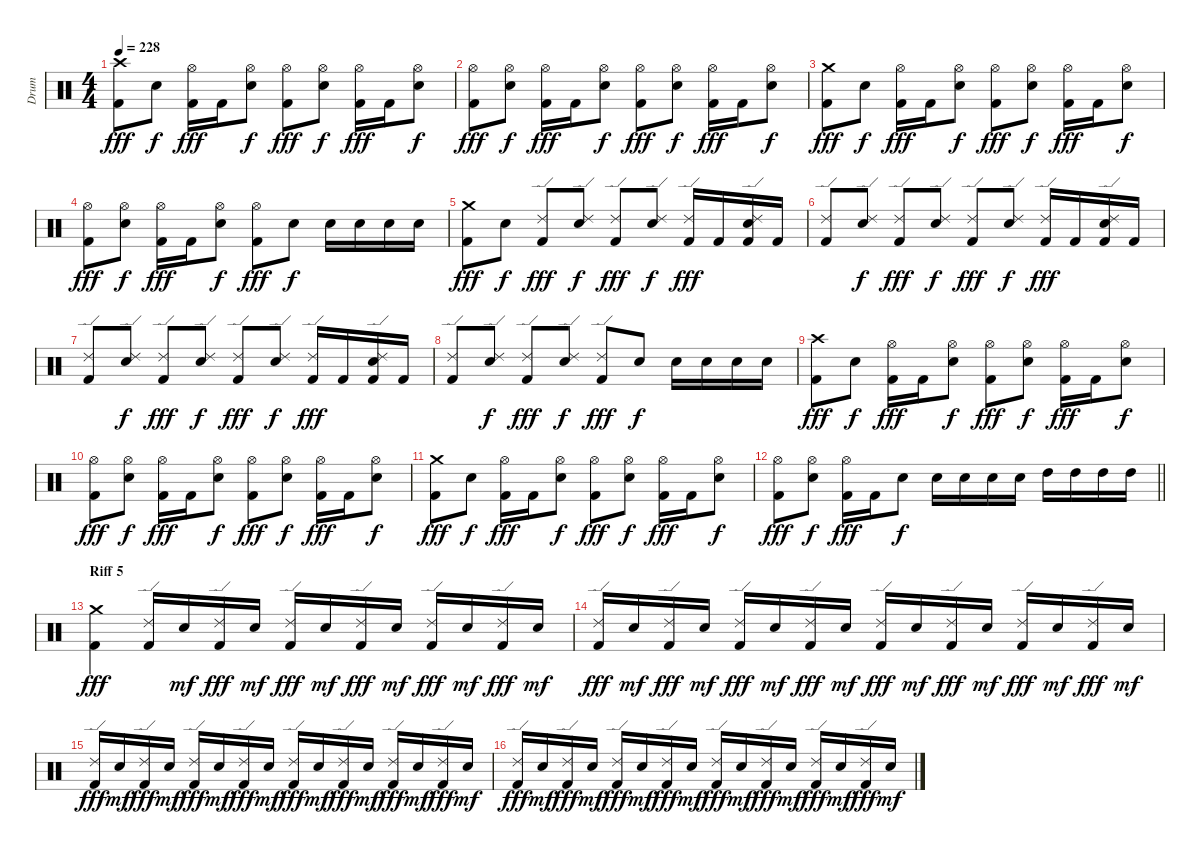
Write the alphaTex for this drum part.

\track ("Drum" "Drum") {instrument percussion}
\staff {score}
\articulation defaults
\ts (4 4)
\tempo 228
\clef neutral
\ks c
("Crash high (hit)" "Kick (hit) 2").8{dy fff} "Snare (hit) 2".8{dy f} ("Hi-Hat (open)" "Kick (hit) 2").16{dy fff} "Kick (hit) 2".16 ("Hi-Hat (open)" "Snare (hit) 2").8{dy f} ("Hi-Hat (open)" "Kick (hit) 2").8{dy fff} ("Hi-Hat (open)" "Snare (hit) 2").8{dy f} ("Hi-Hat (open)" "Kick (hit) 2").16{dy fff} "Kick (hit) 2".16 ("Hi-Hat (open)" "Snare (hit) 2").8{dy f} |
("Hi-Hat (open)" "Kick (hit) 2").8{dy fff} ("Hi-Hat (open)" "Snare (hit) 2").8{dy f} ("Hi-Hat (open)" "Kick (hit) 2").16{dy fff} "Kick (hit) 2".16 ("Hi-Hat (open)" "Snare (hit) 2").8{dy f} ("Hi-Hat (open)" "Kick (hit) 2").8{dy fff} ("Hi-Hat (open)" "Snare (hit) 2").8{dy f} ("Hi-Hat (open)" "Kick (hit) 2").16{dy fff} "Kick (hit) 2".16 ("Hi-Hat (open)" "Snare (hit) 2").8{dy f} |
("Crash medium (hit)" "Kick (hit) 2").8{dy fff} "Snare (hit) 2".8{dy f} ("Hi-Hat (open)" "Kick (hit) 2").16{dy fff} "Kick (hit) 2".16 ("Hi-Hat (open)" "Snare (hit) 2").8{dy f} ("Hi-Hat (open)" "Kick (hit) 2").8{dy fff} ("Hi-Hat (open)" "Snare (hit) 2").8{dy f} ("Hi-Hat (open)" "Kick (hit) 2").16{dy fff} "Kick (hit) 2".16 ("Hi-Hat (open)" "Snare (hit) 2").8{dy f} |
("Hi-Hat (open)" "Kick (hit) 2").8{dy fff} ("Hi-Hat (open)" "Snare (hit) 2").8{dy f} ("Hi-Hat (open)" "Kick (hit) 2").16{dy fff} "Kick (hit) 2".16 ("Hi-Hat (open)" "Snare (hit) 2").8{dy f} ("Hi-Hat (open)" "Kick (hit) 2").8{dy fff} "Snare (hit) 2".8{dy f} "Snare (hit) 2".16 "Snare (hit) 2".16 "Snare (hit) 2".16 "Snare (hit) 2".16 |
("Crash medium (hit)" "Kick (hit) 2").8{dy fff} "Snare (hit) 2".8{dy f} ("Ride (edge) 2" "Kick (hit) 2").8{dy fff} ("Ride (edge) 2" "Snare (hit) 2").8{dy f} ("Ride (edge) 2" "Kick (hit) 2").8{dy fff} ("Ride (edge) 2" "Snare (hit) 2").8{dy f} ("Ride (edge) 2" "Kick (hit) 2").16{dy fff} "Kick (hit) 2".16 ("Ride (edge) 2" "Snare (hit) 2" "Kick (hit) 2").16 "Kick (hit) 2".16 |
("Ride (edge) 2" "Kick (hit) 2").8 ("Ride (edge) 2" "Snare (hit) 2").8{dy f} ("Ride (edge) 2" "Kick (hit) 2").8{dy fff} ("Ride (edge) 2" "Snare (hit) 2").8{dy f} ("Ride (edge) 2" "Kick (hit) 2").8{dy fff} ("Ride (edge) 2" "Snare (hit) 2").8{dy f} ("Ride (edge) 2" "Kick (hit) 2").16{dy fff} "Kick (hit) 2".16 ("Ride (edge) 2" "Snare (hit) 2" "Kick (hit) 2").16 "Kick (hit) 2".16 |
("Ride (edge) 2" "Kick (hit) 2").8 ("Ride (edge) 2" "Snare (hit) 2").8{dy f} ("Ride (edge) 2" "Kick (hit) 2").8{dy fff} ("Ride (edge) 2" "Snare (hit) 2").8{dy f} ("Ride (edge) 2" "Kick (hit) 2").8{dy fff} ("Ride (edge) 2" "Snare (hit) 2").8{dy f} ("Ride (edge) 2" "Kick (hit) 2").16{dy fff} "Kick (hit) 2".16 ("Ride (edge) 2" "Snare (hit) 2" "Kick (hit) 2").16 "Kick (hit) 2".16 |
("Ride (edge) 2" "Kick (hit) 2").8 ("Ride (edge) 2" "Snare (hit) 2").8{dy f} ("Ride (edge) 2" "Kick (hit) 2").8{dy fff} ("Ride (edge) 2" "Snare (hit) 2").8{dy f} ("Ride (edge) 2" "Kick (hit) 2").8{dy fff} "Snare (hit) 2".8{dy f} "Snare (hit) 2".16 "Snare (hit) 2".16 "Snare (hit) 2".16 "Snare (hit) 2".16 |
("Crash high (hit)" "Kick (hit) 2").8{dy fff} "Snare (hit) 2".8{dy f} ("Hi-Hat (open)" "Kick (hit) 2").16{dy fff} "Kick (hit) 2".16 ("Hi-Hat (open)" "Snare (hit) 2").8{dy f} ("Hi-Hat (open)" "Kick (hit) 2").8{dy fff} ("Hi-Hat (open)" "Snare (hit) 2").8{dy f} ("Hi-Hat (open)" "Kick (hit) 2").16{dy fff} "Kick (hit) 2".16 ("Hi-Hat (open)" "Snare (hit) 2").8{dy f} |
("Hi-Hat (open)" "Kick (hit) 2").8{dy fff} ("Hi-Hat (open)" "Snare (hit) 2").8{dy f} ("Hi-Hat (open)" "Kick (hit) 2").16{dy fff} "Kick (hit) 2".16 ("Hi-Hat (open)" "Snare (hit) 2").8{dy f} ("Hi-Hat (open)" "Kick (hit) 2").8{dy fff} ("Hi-Hat (open)" "Snare (hit) 2").8{dy f} ("Hi-Hat (open)" "Kick (hit) 2").16{dy fff} "Kick (hit) 2".16 ("Hi-Hat (open)" "Snare (hit) 2").8{dy f} |
("Crash medium (hit)" "Kick (hit) 2").8{dy fff} "Snare (hit) 2".8{dy f} ("Hi-Hat (open)" "Kick (hit) 2").16{dy fff} "Kick (hit) 2".16 ("Hi-Hat (open)" "Snare (hit) 2").8{dy f} ("Hi-Hat (open)" "Kick (hit) 2").8{dy fff} ("Hi-Hat (open)" "Snare (hit) 2").8{dy f} ("Hi-Hat (open)" "Kick (hit) 2").16{dy fff} "Kick (hit) 2".16 ("Hi-Hat (open)" "Snare (hit) 2").8{dy f} |
\barLineRight lightlight
("Hi-Hat (open)" "Kick (hit) 2").8{dy fff} ("Hi-Hat (open)" "Snare (hit) 2").8{dy f} ("Hi-Hat (open)" "Kick (hit) 2").16{dy fff} "Kick (hit) 2".16 "Snare (hit) 2".8{dy f} "Snare (hit) 2".16 "Snare (hit) 2".16 "Snare (hit) 2".16 "Snare (hit) 2".16 "High Tom (hit)".16 "High Tom (hit)".16 "High Tom (hit)".16 "High Tom (hit)".16 |
\section ("" "Riff 5")
("Crash medium (hit)" "Kick (hit) 2").4{dy fff} ("Ride (edge) 2" "Kick (hit) 2").16 "Snare (hit) 2".16{dy mf} ("Ride (edge) 2" "Kick (hit) 2").16{dy fff} "Snare (hit) 2".16{dy mf} ("Ride (edge) 2" "Kick (hit) 2").16{dy fff} "Snare (hit) 2".16{dy mf} ("Ride (edge) 2" "Kick (hit) 2").16{dy fff} "Snare (hit) 2".16{dy mf} ("Ride (edge) 2" "Kick (hit) 2").16{dy fff} "Snare (hit) 2".16{dy mf} ("Ride (edge) 2" "Kick (hit) 2").16{dy fff} "Snare (hit) 2".16{dy mf} |
("Ride (edge) 2" "Kick (hit) 2").16{dy fff} "Snare (hit) 2".16{dy mf} ("Ride (edge) 2" "Kick (hit) 2").16{dy fff} "Snare (hit) 2".16{dy mf} ("Ride (edge) 2" "Kick (hit) 2").16{dy fff} "Snare (hit) 2".16{dy mf} ("Ride (edge) 2" "Kick (hit) 2").16{dy fff} "Snare (hit) 2".16{dy mf} ("Ride (edge) 2" "Kick (hit) 2").16{dy fff} "Snare (hit) 2".16{dy mf} ("Ride (edge) 2" "Kick (hit) 2").16{dy fff} "Snare (hit) 2".16{dy mf} ("Ride (edge) 2" "Kick (hit) 2").16{dy fff} "Snare (hit) 2".16{dy mf} ("Ride (edge) 2" "Kick (hit) 2").16{dy fff} "Snare (hit) 2".16{dy mf} |
("Ride (edge) 2" "Kick (hit) 2").16{dy fff} "Snare (hit) 2".16{dy mf} ("Ride (edge) 2" "Kick (hit) 2").16{dy fff} "Snare (hit) 2".16{dy mf} ("Ride (edge) 2" "Kick (hit) 2").16{dy fff} "Snare (hit) 2".16{dy mf} ("Ride (edge) 2" "Kick (hit) 2").16{dy fff} "Snare (hit) 2".16{dy mf} ("Ride (edge) 2" "Kick (hit) 2").16{dy fff} "Snare (hit) 2".16{dy mf} ("Ride (edge) 2" "Kick (hit) 2").16{dy fff} "Snare (hit) 2".16{dy mf} ("Ride (edge) 2" "Kick (hit) 2").16{dy fff} "Snare (hit) 2".16{dy mf} ("Ride (edge) 2" "Kick (hit) 2").16{dy fff} "Snare (hit) 2".16{dy mf} |
("Ride (edge) 2" "Kick (hit) 2").16{dy fff} "Snare (hit) 2".16{dy mf} ("Ride (edge) 2" "Kick (hit) 2").16{dy fff} "Snare (hit) 2".16{dy mf} ("Ride (edge) 2" "Kick (hit) 2").16{dy fff} "Snare (hit) 2".16{dy mf} ("Ride (edge) 2" "Kick (hit) 2").16{dy fff} "Snare (hit) 2".16{dy mf} ("Ride (edge) 2" "Kick (hit) 2").16{dy fff} "Snare (hit) 2".16{dy mf} ("Ride (edge) 2" "Kick (hit) 2").16{dy fff} "Snare (hit) 2".16{dy mf} ("Ride (edge) 2" "Kick (hit) 2").16{dy fff} "Snare (hit) 2".16{dy mf} ("Ride (edge) 2" "Kick (hit) 2").16{dy fff} "Snare (hit) 2".16{dy mf}
